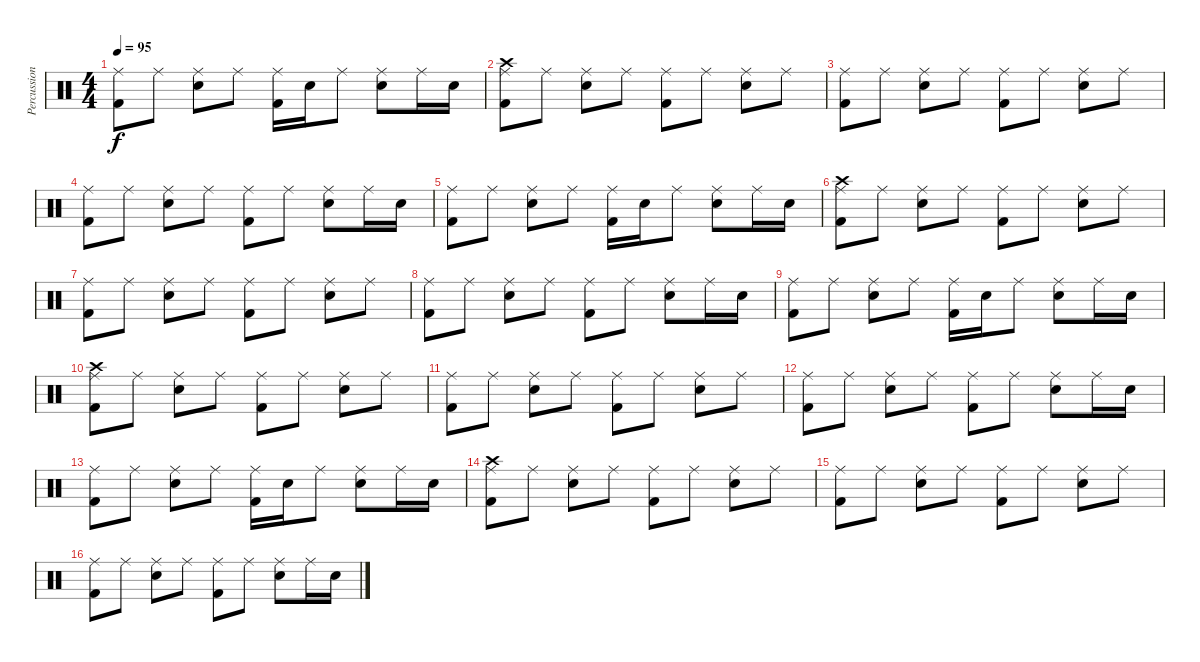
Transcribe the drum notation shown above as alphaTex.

\track ("Percussion" "Percussion") {instrument percussion}
\staff {score}
\articulation defaults
\ts (4 4)
\tempo 95
\clef neutral
\ks c
("Ride (middle)" "Kick (hit) 2").8{dy f} "Ride (middle)".8 ("Ride (middle)" "Electric Snare (hit)").8 "Ride (middle)".8 ("Ride (middle)" "Kick (hit) 2").16 "Electric Snare (hit)".16 "Ride (middle)".8 ("Ride (middle)" "Electric Snare (hit)").8 "Ride (middle)".16 "Electric Snare (hit)".16 |
("Crash high (hit)" "Ride (middle)" "Kick (hit) 2").8 "Ride (middle)".8 ("Ride (middle)" "Electric Snare (hit)").8 "Ride (middle)".8 ("Ride (middle)" "Kick (hit) 2").8 "Ride (middle)".8 ("Ride (middle)" "Electric Snare (hit)").8 "Ride (middle)".8 |
("Ride (middle)" "Kick (hit) 2").8 "Ride (middle)".8 ("Ride (middle)" "Electric Snare (hit)").8 "Ride (middle)".8 ("Ride (middle)" "Kick (hit) 2").8 "Ride (middle)".8 ("Ride (middle)" "Electric Snare (hit)").8 "Ride (middle)".8 |
("Ride (middle)" "Kick (hit) 2").8 "Ride (middle)".8 ("Ride (middle)" "Electric Snare (hit)").8 "Ride (middle)".8 ("Ride (middle)" "Kick (hit) 2").8 "Ride (middle)".8 ("Ride (middle)" "Electric Snare (hit)").8 "Ride (middle)".16 "Electric Snare (hit)".16 |
("Ride (middle)" "Kick (hit) 2").8 "Ride (middle)".8 ("Ride (middle)" "Electric Snare (hit)").8 "Ride (middle)".8 ("Ride (middle)" "Kick (hit) 2").16 "Electric Snare (hit)".16 "Ride (middle)".8 ("Ride (middle)" "Electric Snare (hit)").8 "Ride (middle)".16 "Electric Snare (hit)".16 |
("Crash high (hit)" "Ride (middle)" "Kick (hit) 2").8 "Ride (middle)".8 ("Ride (middle)" "Electric Snare (hit)").8 "Ride (middle)".8 ("Ride (middle)" "Kick (hit) 2").8 "Ride (middle)".8 ("Ride (middle)" "Electric Snare (hit)").8 "Ride (middle)".8 |
("Ride (middle)" "Kick (hit) 2").8 "Ride (middle)".8 ("Ride (middle)" "Electric Snare (hit)").8 "Ride (middle)".8 ("Ride (middle)" "Kick (hit) 2").8 "Ride (middle)".8 ("Ride (middle)" "Electric Snare (hit)").8 "Ride (middle)".8 |
("Ride (middle)" "Kick (hit) 2").8 "Ride (middle)".8 ("Ride (middle)" "Electric Snare (hit)").8 "Ride (middle)".8 ("Ride (middle)" "Kick (hit) 2").8 "Ride (middle)".8 ("Ride (middle)" "Electric Snare (hit)").8 "Ride (middle)".16 "Electric Snare (hit)".16 |
("Ride (middle)" "Kick (hit) 2").8 "Ride (middle)".8 ("Ride (middle)" "Electric Snare (hit)").8 "Ride (middle)".8 ("Ride (middle)" "Kick (hit) 2").16 "Electric Snare (hit)".16 "Ride (middle)".8 ("Ride (middle)" "Electric Snare (hit)").8 "Ride (middle)".16 "Electric Snare (hit)".16 |
("Crash high (hit)" "Ride (middle)" "Kick (hit) 2").8 "Ride (middle)".8 ("Ride (middle)" "Electric Snare (hit)").8 "Ride (middle)".8 ("Ride (middle)" "Kick (hit) 2").8 "Ride (middle)".8 ("Ride (middle)" "Electric Snare (hit)").8 "Ride (middle)".8 |
("Ride (middle)" "Kick (hit) 2").8 "Ride (middle)".8 ("Ride (middle)" "Electric Snare (hit)").8 "Ride (middle)".8 ("Ride (middle)" "Kick (hit) 2").8 "Ride (middle)".8 ("Ride (middle)" "Electric Snare (hit)").8 "Ride (middle)".8 |
("Ride (middle)" "Kick (hit) 2").8 "Ride (middle)".8 ("Ride (middle)" "Electric Snare (hit)").8 "Ride (middle)".8 ("Ride (middle)" "Kick (hit) 2").8 "Ride (middle)".8 ("Ride (middle)" "Electric Snare (hit)").8 "Ride (middle)".16 "Electric Snare (hit)".16 |
("Ride (middle)" "Kick (hit) 2").8 "Ride (middle)".8 ("Ride (middle)" "Electric Snare (hit)").8 "Ride (middle)".8 ("Ride (middle)" "Kick (hit) 2").16 "Electric Snare (hit)".16 "Ride (middle)".8 ("Ride (middle)" "Electric Snare (hit)").8 "Ride (middle)".16 "Electric Snare (hit)".16 |
("Crash high (hit)" "Ride (middle)" "Kick (hit) 2").8 "Ride (middle)".8 ("Ride (middle)" "Electric Snare (hit)").8 "Ride (middle)".8 ("Ride (middle)" "Kick (hit) 2").8 "Ride (middle)".8 ("Ride (middle)" "Electric Snare (hit)").8 "Ride (middle)".8 |
("Ride (middle)" "Kick (hit) 2").8 "Ride (middle)".8 ("Ride (middle)" "Electric Snare (hit)").8 "Ride (middle)".8 ("Ride (middle)" "Kick (hit) 2").8 "Ride (middle)".8 ("Ride (middle)" "Electric Snare (hit)").8 "Ride (middle)".8 |
("Ride (middle)" "Kick (hit) 2").8 "Ride (middle)".8 ("Ride (middle)" "Electric Snare (hit)").8 "Ride (middle)".8 ("Ride (middle)" "Kick (hit) 2").8 "Ride (middle)".8 ("Ride (middle)" "Electric Snare (hit)").8 "Ride (middle)".16 "Electric Snare (hit)".16
